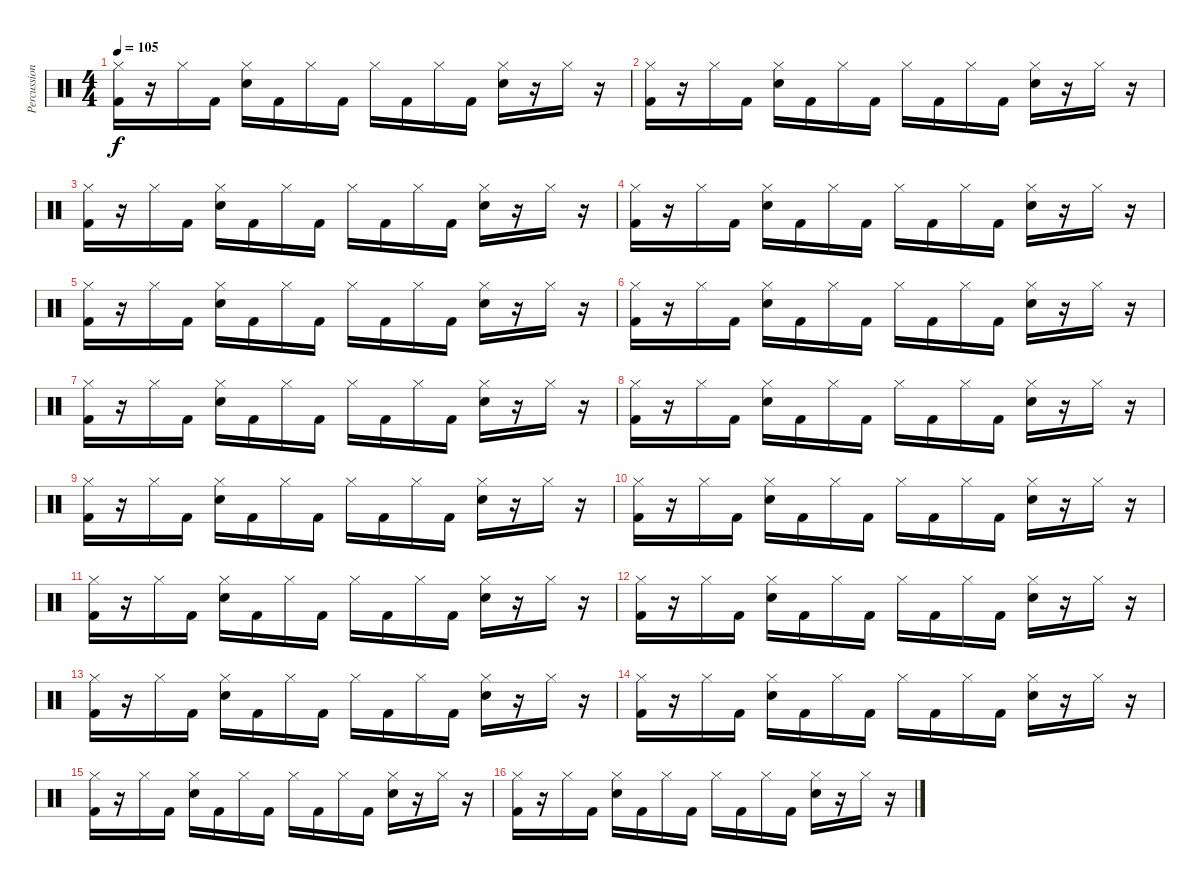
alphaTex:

\track ("Percussion" "Percussion") {instrument percussion}
\staff {score}
\articulation defaults
\ts (4 4)
\tempo 105
\clef neutral
\ks c
("Hi-Hat (closed)" "Kick (hit) 2").16{dy f} r.16 "Hi-Hat (closed)".16 "Kick (hit) 2".16 ("Hi-Hat (closed)" "Electric Snare (hit)").16 "Kick (hit) 2".16 "Hi-Hat (closed)".16 "Kick (hit) 2".16 "Hi-Hat (closed)".16 "Kick (hit) 2".16 "Hi-Hat (closed)".16 "Kick (hit) 2".16 ("Hi-Hat (closed)" "Electric Snare (hit)").16 r.16 "Hi-Hat (closed)".16 r.16 |
("Hi-Hat (closed)" "Kick (hit) 2").16 r.16 "Hi-Hat (closed)".16 "Kick (hit) 2".16 ("Hi-Hat (closed)" "Electric Snare (hit)").16 "Kick (hit) 2".16 "Hi-Hat (closed)".16 "Kick (hit) 2".16 "Hi-Hat (closed)".16 "Kick (hit) 2".16 "Hi-Hat (closed)".16 "Kick (hit) 2".16 ("Hi-Hat (closed)" "Electric Snare (hit)").16 r.16 "Hi-Hat (closed)".16 r.16 |
("Hi-Hat (closed)" "Kick (hit) 2").16 r.16 "Hi-Hat (closed)".16 "Kick (hit) 2".16 ("Hi-Hat (closed)" "Electric Snare (hit)").16 "Kick (hit) 2".16 "Hi-Hat (closed)".16 "Kick (hit) 2".16 "Hi-Hat (closed)".16 "Kick (hit) 2".16 "Hi-Hat (closed)".16 "Kick (hit) 2".16 ("Hi-Hat (closed)" "Electric Snare (hit)").16 r.16 "Hi-Hat (closed)".16 r.16 |
("Hi-Hat (closed)" "Kick (hit) 2").16 r.16 "Hi-Hat (closed)".16 "Kick (hit) 2".16 ("Hi-Hat (closed)" "Electric Snare (hit)").16 "Kick (hit) 2".16 "Hi-Hat (closed)".16 "Kick (hit) 2".16 "Hi-Hat (closed)".16 "Kick (hit) 2".16 "Hi-Hat (closed)".16 "Kick (hit) 2".16 ("Hi-Hat (closed)" "Electric Snare (hit)").16 r.16 "Hi-Hat (closed)".16 r.16 |
("Hi-Hat (closed)" "Kick (hit) 2").16 r.16 "Hi-Hat (closed)".16 "Kick (hit) 2".16 ("Hi-Hat (closed)" "Electric Snare (hit)").16 "Kick (hit) 2".16 "Hi-Hat (closed)".16 "Kick (hit) 2".16 "Hi-Hat (closed)".16 "Kick (hit) 2".16 "Hi-Hat (closed)".16 "Kick (hit) 2".16 ("Hi-Hat (closed)" "Electric Snare (hit)").16 r.16 "Hi-Hat (closed)".16 r.16 |
("Hi-Hat (closed)" "Kick (hit) 2").16 r.16 "Hi-Hat (closed)".16 "Kick (hit) 2".16 ("Hi-Hat (closed)" "Electric Snare (hit)").16 "Kick (hit) 2".16 "Hi-Hat (closed)".16 "Kick (hit) 2".16 "Hi-Hat (closed)".16 "Kick (hit) 2".16 "Hi-Hat (closed)".16 "Kick (hit) 2".16 ("Hi-Hat (closed)" "Electric Snare (hit)").16 r.16 "Hi-Hat (closed)".16 r.16 |
("Hi-Hat (closed)" "Kick (hit) 2").16 r.16 "Hi-Hat (closed)".16 "Kick (hit) 2".16 ("Hi-Hat (closed)" "Electric Snare (hit)").16 "Kick (hit) 2".16 "Hi-Hat (closed)".16 "Kick (hit) 2".16 "Hi-Hat (closed)".16 "Kick (hit) 2".16 "Hi-Hat (closed)".16 "Kick (hit) 2".16 ("Hi-Hat (closed)" "Electric Snare (hit)").16 r.16 "Hi-Hat (closed)".16 r.16 |
("Hi-Hat (closed)" "Kick (hit) 2").16 r.16 "Hi-Hat (closed)".16 "Kick (hit) 2".16 ("Hi-Hat (closed)" "Electric Snare (hit)").16 "Kick (hit) 2".16 "Hi-Hat (closed)".16 "Kick (hit) 2".16 "Hi-Hat (closed)".16 "Kick (hit) 2".16 "Hi-Hat (closed)".16 "Kick (hit) 2".16 ("Hi-Hat (closed)" "Electric Snare (hit)").16 r.16 "Hi-Hat (closed)".16 r.16 |
("Hi-Hat (closed)" "Kick (hit) 2").16 r.16 "Hi-Hat (closed)".16 "Kick (hit) 2".16 ("Hi-Hat (closed)" "Electric Snare (hit)").16 "Kick (hit) 2".16 "Hi-Hat (closed)".16 "Kick (hit) 2".16 "Hi-Hat (closed)".16 "Kick (hit) 2".16 "Hi-Hat (closed)".16 "Kick (hit) 2".16 ("Hi-Hat (closed)" "Electric Snare (hit)").16 r.16 "Hi-Hat (closed)".16 r.16 |
("Hi-Hat (closed)" "Kick (hit) 2").16 r.16 "Hi-Hat (closed)".16 "Kick (hit) 2".16 ("Hi-Hat (closed)" "Electric Snare (hit)").16 "Kick (hit) 2".16 "Hi-Hat (closed)".16 "Kick (hit) 2".16 "Hi-Hat (closed)".16 "Kick (hit) 2".16 "Hi-Hat (closed)".16 "Kick (hit) 2".16 ("Hi-Hat (closed)" "Electric Snare (hit)").16 r.16 "Hi-Hat (closed)".16 r.16 |
("Hi-Hat (closed)" "Kick (hit) 2").16 r.16 "Hi-Hat (closed)".16 "Kick (hit) 2".16 ("Hi-Hat (closed)" "Electric Snare (hit)").16 "Kick (hit) 2".16 "Hi-Hat (closed)".16 "Kick (hit) 2".16 "Hi-Hat (closed)".16 "Kick (hit) 2".16 "Hi-Hat (closed)".16 "Kick (hit) 2".16 ("Hi-Hat (closed)" "Electric Snare (hit)").16 r.16 "Hi-Hat (closed)".16 r.16 |
("Hi-Hat (closed)" "Kick (hit) 2").16 r.16 "Hi-Hat (closed)".16 "Kick (hit) 2".16 ("Hi-Hat (closed)" "Electric Snare (hit)").16 "Kick (hit) 2".16 "Hi-Hat (closed)".16 "Kick (hit) 2".16 "Hi-Hat (closed)".16 "Kick (hit) 2".16 "Hi-Hat (closed)".16 "Kick (hit) 2".16 ("Hi-Hat (closed)" "Electric Snare (hit)").16 r.16 "Hi-Hat (closed)".16 r.16 |
("Hi-Hat (closed)" "Kick (hit) 2").16 r.16 "Hi-Hat (closed)".16 "Kick (hit) 2".16 ("Hi-Hat (closed)" "Electric Snare (hit)").16 "Kick (hit) 2".16 "Hi-Hat (closed)".16 "Kick (hit) 2".16 "Hi-Hat (closed)".16 "Kick (hit) 2".16 "Hi-Hat (closed)".16 "Kick (hit) 2".16 ("Hi-Hat (closed)" "Electric Snare (hit)").16 r.16 "Hi-Hat (closed)".16 r.16 |
("Hi-Hat (closed)" "Kick (hit) 2").16 r.16 "Hi-Hat (closed)".16 "Kick (hit) 2".16 ("Hi-Hat (closed)" "Electric Snare (hit)").16 "Kick (hit) 2".16 "Hi-Hat (closed)".16 "Kick (hit) 2".16 "Hi-Hat (closed)".16 "Kick (hit) 2".16 "Hi-Hat (closed)".16 "Kick (hit) 2".16 ("Hi-Hat (closed)" "Electric Snare (hit)").16 r.16 "Hi-Hat (closed)".16 r.16 |
("Hi-Hat (closed)" "Kick (hit) 2").16 r.16 "Hi-Hat (closed)".16 "Kick (hit) 2".16 ("Hi-Hat (closed)" "Electric Snare (hit)").16 "Kick (hit) 2".16 "Hi-Hat (closed)".16 "Kick (hit) 2".16 "Hi-Hat (closed)".16 "Kick (hit) 2".16 "Hi-Hat (closed)".16 "Kick (hit) 2".16 ("Hi-Hat (closed)" "Electric Snare (hit)").16 r.16 "Hi-Hat (closed)".16 r.16 |
("Hi-Hat (closed)" "Kick (hit) 2").16 r.16 "Hi-Hat (closed)".16 "Kick (hit) 2".16 ("Hi-Hat (closed)" "Electric Snare (hit)").16 "Kick (hit) 2".16 "Hi-Hat (closed)".16 "Kick (hit) 2".16 "Hi-Hat (closed)".16 "Kick (hit) 2".16 "Hi-Hat (closed)".16 "Kick (hit) 2".16 ("Hi-Hat (closed)" "Electric Snare (hit)").16 r.16 "Hi-Hat (closed)".16 r.16
